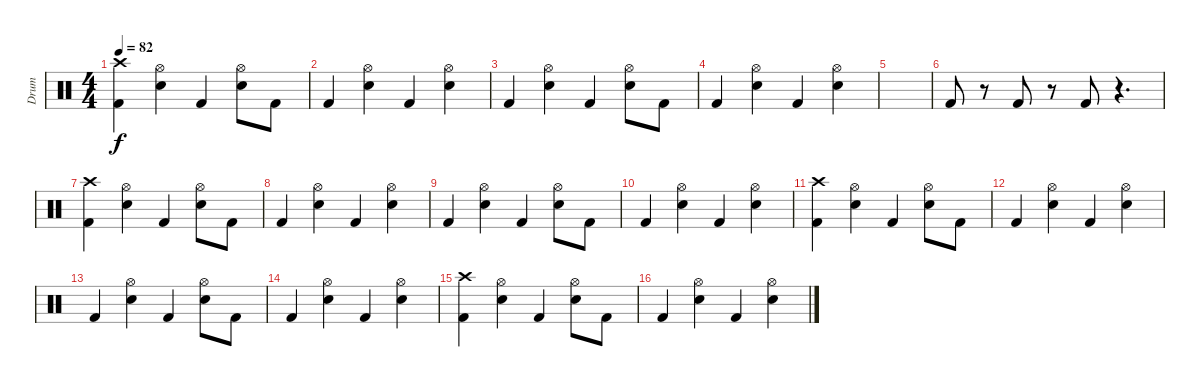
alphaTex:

\track ("Drum" "Drum") {instrument percussion}
\staff {score}
\articulation defaults
\ts (4 4)
\tempo 82
\clef neutral
\ks c
("Crash high (hit)" "Kick (hit) 2").4{dy f} ("Hi-Hat (open)" "Snare (hit) 2").4 "Kick (hit) 2".4 ("Hi-Hat (open)" "Snare (hit) 2").8 "Kick (hit) 2".8 |
"Kick (hit) 2".4 ("Hi-Hat (open)" "Snare (hit) 2").4 "Kick (hit) 2".4 ("Hi-Hat (open)" "Snare (hit) 2").4 |
"Kick (hit) 2".4 ("Hi-Hat (open)" "Snare (hit) 2").4 "Kick (hit) 2".4 ("Hi-Hat (open)" "Snare (hit) 2").8 "Kick (hit) 2".8 |
"Kick (hit) 2".4 ("Hi-Hat (open)" "Snare (hit) 2").4 "Kick (hit) 2".4 ("Hi-Hat (open)" "Snare (hit) 2").4 |
|
"Kick (hit) 2".8 r.8 "Kick (hit) 2".8 r.8 "Kick (hit) 2".8 r.4{d} |
("Crash high (hit)" "Kick (hit) 2").4 ("Hi-Hat (open)" "Snare (hit) 2").4 "Kick (hit) 2".4 ("Hi-Hat (open)" "Snare (hit) 2").8 "Kick (hit) 2".8 |
"Kick (hit) 2".4 ("Hi-Hat (open)" "Snare (hit) 2").4 "Kick (hit) 2".4 ("Hi-Hat (open)" "Snare (hit) 2").4 |
"Kick (hit) 2".4 ("Hi-Hat (open)" "Snare (hit) 2").4 "Kick (hit) 2".4 ("Hi-Hat (open)" "Snare (hit) 2").8 "Kick (hit) 2".8 |
"Kick (hit) 2".4 ("Hi-Hat (open)" "Snare (hit) 2").4 "Kick (hit) 2".4 ("Hi-Hat (open)" "Snare (hit) 2").4 |
("Crash high (hit)" "Kick (hit) 2").4 ("Hi-Hat (open)" "Snare (hit) 2").4 "Kick (hit) 2".4 ("Hi-Hat (open)" "Snare (hit) 2").8 "Kick (hit) 2".8 |
"Kick (hit) 2".4 ("Hi-Hat (open)" "Snare (hit) 2").4 "Kick (hit) 2".4 ("Hi-Hat (open)" "Snare (hit) 2").4 |
"Kick (hit) 2".4 ("Hi-Hat (open)" "Snare (hit) 2").4 "Kick (hit) 2".4 ("Hi-Hat (open)" "Snare (hit) 2").8 "Kick (hit) 2".8 |
"Kick (hit) 2".4 ("Hi-Hat (open)" "Snare (hit) 2").4 "Kick (hit) 2".4 ("Hi-Hat (open)" "Snare (hit) 2").4 |
("Crash high (hit)" "Kick (hit) 2").4 ("Hi-Hat (open)" "Snare (hit) 2").4 "Kick (hit) 2".4 ("Hi-Hat (open)" "Snare (hit) 2").8 "Kick (hit) 2".8 |
"Kick (hit) 2".4 ("Hi-Hat (open)" "Snare (hit) 2").4 "Kick (hit) 2".4 ("Hi-Hat (open)" "Snare (hit) 2").4
